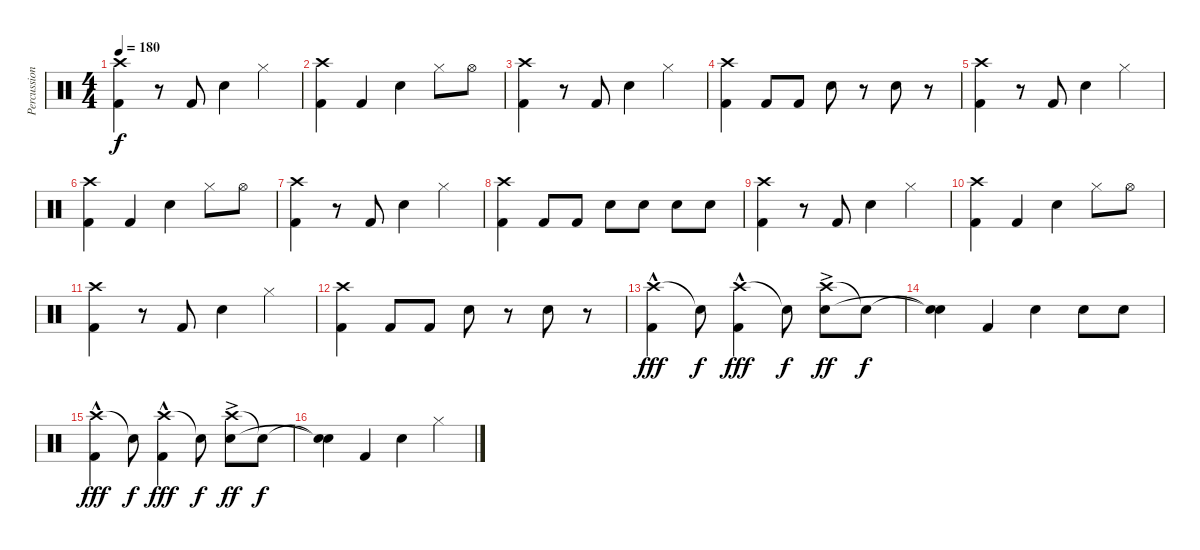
\track ("Percussion" "Percussion") {instrument percussion}
\staff {score}
\articulation defaults
\ts (4 4)
\tempo 180
\clef neutral
\ks c
("Crash high (hit)" "Kick (hit) 2").4{dy f} r.8 "Kick (hit) 2".8 "Electric Snare (hit)".4 "Hi-Hat (closed)".4 |
("Crash high (hit)" "Kick (hit) 2").4 "Kick (hit) 2".4 "Electric Snare (hit)".4 "Hi-Hat (closed)".8 "Hi-Hat (open)".8 |
("Crash high (hit)" "Kick (hit) 2").4 r.8 "Kick (hit) 2".8 "Electric Snare (hit)".4 "Hi-Hat (closed)".4 |
("Crash high (hit)" "Kick (hit) 2").4 "Kick (hit) 2".8 "Kick (hit) 2".8 "Electric Snare (hit)".8 r.8 "Electric Snare (hit)".8 r.8 |
("Crash high (hit)" "Kick (hit) 2").4 r.8 "Kick (hit) 2".8 "Electric Snare (hit)".4 "Hi-Hat (closed)".4 |
("Crash high (hit)" "Kick (hit) 2").4 "Kick (hit) 2".4 "Electric Snare (hit)".4 "Hi-Hat (closed)".8 "Hi-Hat (open)".8 |
("Crash high (hit)" "Kick (hit) 2").4 r.8 "Kick (hit) 2".8 "Electric Snare (hit)".4 "Hi-Hat (closed)".4 |
("Crash high (hit)" "Kick (hit) 2").4 "Kick (hit) 2".8 "Kick (hit) 2".8 "Electric Snare (hit)".8 "Electric Snare (hit)".8 "Electric Snare (hit)".8 "Electric Snare (hit)".8 |
("Crash high (hit)" "Kick (hit) 2").4 r.8 "Kick (hit) 2".8 "Electric Snare (hit)".4 "Hi-Hat (closed)".4 |
("Crash high (hit)" "Kick (hit) 2").4 "Kick (hit) 2".4 "Electric Snare (hit)".4 "Hi-Hat (closed)".8 "Hi-Hat (open)".8 |
("Crash high (hit)" "Kick (hit) 2").4 r.8 "Kick (hit) 2".8 "Electric Snare (hit)".4 "Hi-Hat (closed)".4 |
("Crash high (hit)" "Kick (hit) 2").4 "Kick (hit) 2".8 "Kick (hit) 2".8 "Electric Snare (hit)".8 r.8 "Electric Snare (hit)".8 r.8 |
("Crash high (hit)" "Kick (hit) 2"{hac}).4{dy fff} "Snare (hit)"{t}.8{dy f} ("Crash high (hit)" "Kick (hit) 2"{hac}).4{dy fff} "Snare (hit)"{t}.8{dy f} ("Crash high (hit)" "Electric Snare (hit)"{ac}).8{dy ff} "Snare (hit)"{t}.8{dy f} |
("Snare (hit)"{t} "Snare (hit)"{t}).4 "Kick (hit) 2".4 "Electric Snare (hit)".4 "Electric Snare (hit)".8 "Electric Snare (hit)".8 |
("Crash high (hit)" "Kick (hit) 2"{hac}).4{dy fff} "Snare (hit)"{t}.8{dy f} ("Crash high (hit)" "Kick (hit) 2"{hac}).4{dy fff} "Snare (hit)"{t}.8{dy f} ("Crash high (hit)" "Electric Snare (hit)"{ac}).8{dy ff} "Snare (hit)"{t}.8{dy f} |
("Snare (hit)"{t} "Snare (hit)"{t}).4 "Kick (hit) 2".4 "Electric Snare (hit)".4 "Hi-Hat (closed)".4
